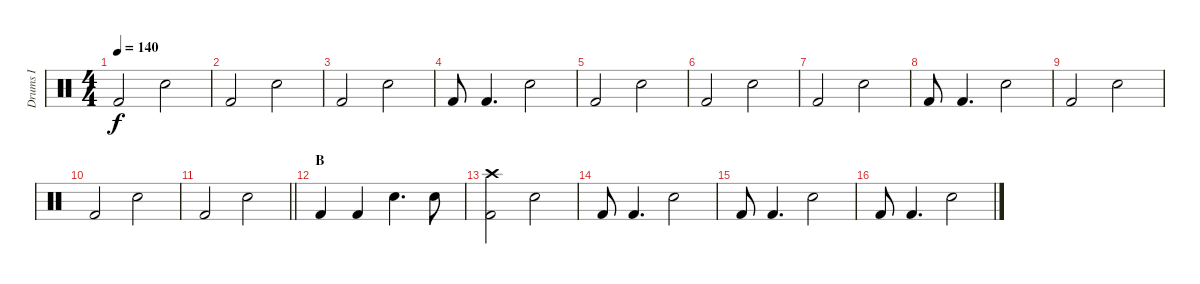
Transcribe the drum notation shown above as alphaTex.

\track ("Drums I" "Drums I") {instrument percussion}
\staff {score}
\articulation defaults
\ts (4 4)
\tempo 140
\clef neutral
\ks c "Kick (hit) 2".2{dy f} "Electric Snare (hit)".2
|
"Kick (hit) 2".2 "Electric Snare (hit)".2 |
"Kick (hit) 2".2 "Electric Snare (hit)".2 |
"Kick (hit) 2".8 "Kick (hit) 2".4{d} "Electric Snare (hit)".2 |
"Kick (hit) 2".2 "Electric Snare (hit)".2 |
"Kick (hit) 2".2 "Electric Snare (hit)".2 |
"Kick (hit) 2".2 "Electric Snare (hit)".2 |
"Kick (hit) 2".8 "Kick (hit) 2".4{d} "Electric Snare (hit)".2 |
"Kick (hit) 2".2 "Electric Snare (hit)".2 |
"Kick (hit) 2".2 "Electric Snare (hit)".2 |
\barLineRight lightlight "Kick (hit) 2".2 "Electric Snare (hit)".2
|
\section ("" "B")
"Kick (hit) 2".4 "Kick (hit) 2".4 "Electric Snare (hit)".4{d} "Electric Snare (hit)".8 |
("Crash high (hit)" "Kick (hit) 2").2 "Electric Snare (hit)".2 |
"Kick (hit) 2".8 "Kick (hit) 2".4{d} "Electric Snare (hit)".2 |
"Kick (hit) 2".8 "Kick (hit) 2".4{d} "Electric Snare (hit)".2 |
"Kick (hit) 2".8 "Kick (hit) 2".4{d} "Electric Snare (hit)".2
